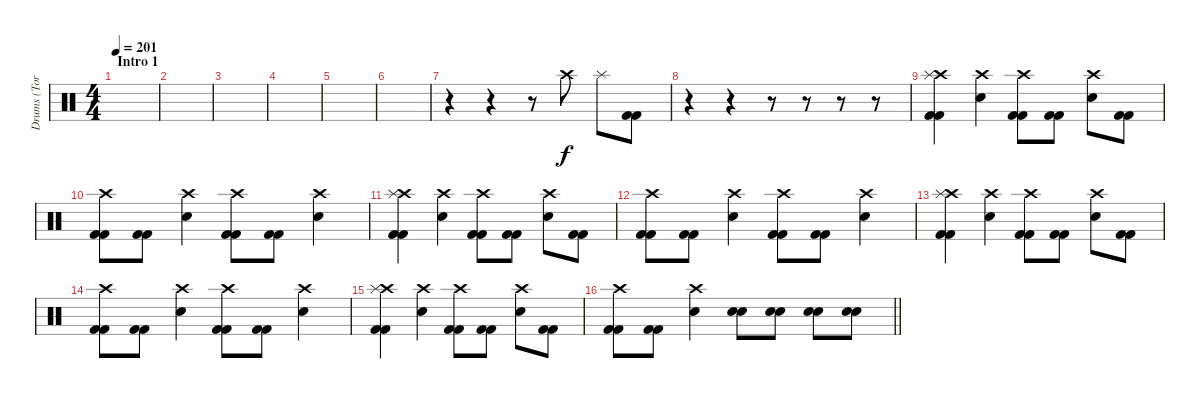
\track ("Drums (Tora)" "Drums (Tor") {instrument percussion}
\staff {score}
\articulation defaults
\ts (4 4)
\section ("" "Intro 1")
\tempo 201
\clef neutral
\ks c
|
|
|
|
|
|
r.4 r.4 r.8 "Crash high (hit)".8 "Splash (hit)".8 ("Kick (hit) 2" "Kick (hit) 2").8 |
r.4 r.4 r.8 r.8 r.8 r.8 |
("Kick (hit) 2" "Crash high (hit)" "Splash (hit)" "Kick (hit) 2").4 ("Crash high (hit)" "Snare (hit) 2").4 ("Kick (hit) 2" "Crash high (hit)" "Kick (hit) 2").8 ("Kick (hit) 2" "Kick (hit) 2").8 ("Crash high (hit)" "Snare (hit) 2").8 ("Kick (hit) 2" "Kick (hit) 2").8 |
("Crash high (hit)" "Kick (hit) 2" "Kick (hit) 2").8 ("Kick (hit) 2" "Kick (hit) 2").8 ("Crash high (hit)" "Snare (hit) 2").4 ("Crash high (hit)" "Kick (hit) 2" "Kick (hit) 2").8 ("Kick (hit) 2" "Kick (hit) 2").8 ("Crash high (hit)" "Snare (hit) 2").4 |
("Kick (hit) 2" "Crash high (hit)" "Splash (hit)" "Kick (hit) 2").4 ("Crash high (hit)" "Snare (hit) 2").4 ("Kick (hit) 2" "Crash high (hit)" "Kick (hit) 2").8 ("Kick (hit) 2" "Kick (hit) 2").8 ("Crash high (hit)" "Snare (hit) 2").8 ("Kick (hit) 2" "Kick (hit) 2").8 |
("Crash high (hit)" "Kick (hit) 2" "Kick (hit) 2").8 ("Kick (hit) 2" "Kick (hit) 2").8 ("Crash high (hit)" "Snare (hit) 2").4 ("Crash high (hit)" "Kick (hit) 2" "Kick (hit) 2").8 ("Kick (hit) 2" "Kick (hit) 2").8 ("Crash high (hit)" "Snare (hit) 2").4 |
("Kick (hit) 2" "Crash high (hit)" "Splash (hit)" "Kick (hit) 2").4 ("Crash high (hit)" "Snare (hit) 2").4 ("Kick (hit) 2" "Crash high (hit)" "Kick (hit) 2").8 ("Kick (hit) 2" "Kick (hit) 2").8 ("Crash high (hit)" "Snare (hit) 2").8 ("Kick (hit) 2" "Kick (hit) 2").8 |
("Crash high (hit)" "Kick (hit) 2" "Kick (hit) 2").8 ("Kick (hit) 2" "Kick (hit) 2").8 ("Crash high (hit)" "Snare (hit) 2").4 ("Crash high (hit)" "Kick (hit) 2" "Kick (hit) 2").8 ("Kick (hit) 2" "Kick (hit) 2").8 ("Crash high (hit)" "Snare (hit) 2").4 |
("Kick (hit) 2" "Crash high (hit)" "Splash (hit)" "Kick (hit) 2").4 ("Crash high (hit)" "Snare (hit) 2").4 ("Kick (hit) 2" "Crash high (hit)" "Kick (hit) 2").8 ("Kick (hit) 2" "Kick (hit) 2").8 ("Crash high (hit)" "Snare (hit) 2").8 ("Kick (hit) 2" "Kick (hit) 2").8 |
\barLineRight lightlight
("Crash high (hit)" "Kick (hit) 2" "Kick (hit) 2").8 ("Kick (hit) 2" "Kick (hit) 2").8 ("Crash high (hit)" "Snare (hit) 2").4 ("Snare (hit) 2" "Snare (hit) 2").8 ("Snare (hit) 2" "Snare (hit) 2").8 ("Snare (hit) 2" "Snare (hit) 2").8 ("Snare (hit) 2" "Snare (hit) 2").8
